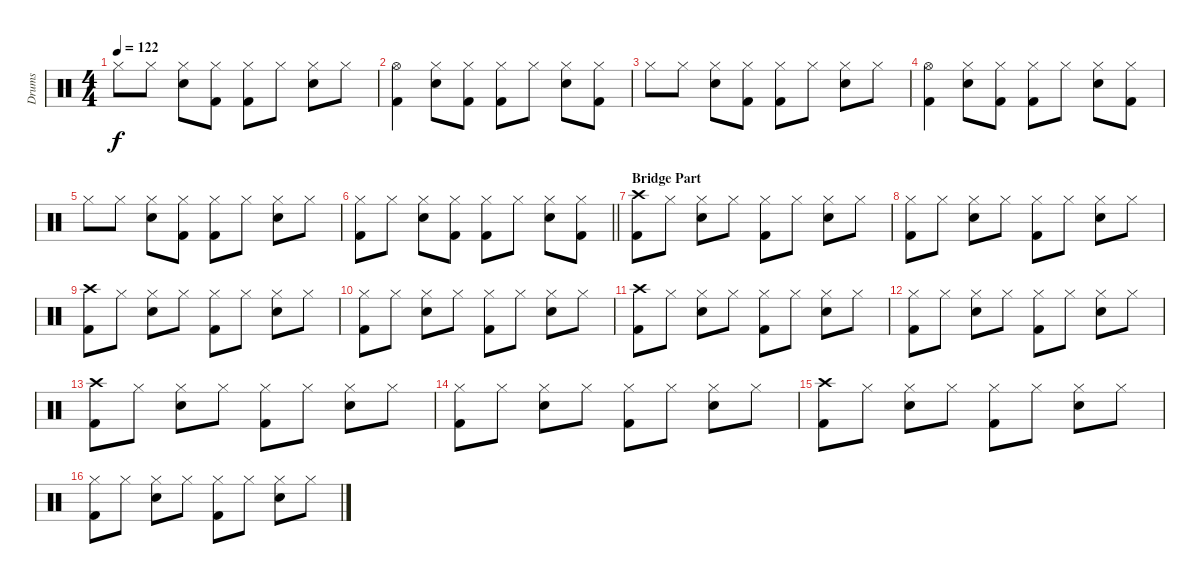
\track ("Drums" "Drums") {instrument percussion}
\staff {score}
\articulation defaults
\ts (4 4)
\tempo 122
\clef neutral
\ks c "Hi-Hat (closed)".8{dy f} "Hi-Hat (closed)".8
("Hi-Hat (closed)" "Snare (hit) 2").8 ("Hi-Hat (closed)" "Kick (hit) 2").8 ("Hi-Hat (closed)" "Kick (hit) 2").8 "Hi-Hat (closed)".8 ("Hi-Hat (closed)" "Snare (hit) 2").8 "Hi-Hat (closed)".8 |
("Hi-Hat (open)" "Kick (hit) 2").4 ("Hi-Hat (closed)" "Snare (hit) 2").8 ("Hi-Hat (closed)" "Kick (hit) 2").8 ("Hi-Hat (closed)" "Kick (hit) 2").8 "Hi-Hat (closed)".8 ("Hi-Hat (closed)" "Snare (hit) 2").8 ("Hi-Hat (closed)" "Kick (hit) 2").8 |
"Hi-Hat (closed)".8 "Hi-Hat (closed)".8 ("Hi-Hat (closed)" "Snare (hit) 2").8 ("Hi-Hat (closed)" "Kick (hit) 2").8 ("Hi-Hat (closed)" "Kick (hit) 2").8 "Hi-Hat (closed)".8 ("Hi-Hat (closed)" "Snare (hit) 2").8 "Hi-Hat (closed)".8 |
("Hi-Hat (open)" "Kick (hit) 2").4 ("Hi-Hat (closed)" "Snare (hit) 2").8 ("Hi-Hat (closed)" "Kick (hit) 2").8 ("Hi-Hat (closed)" "Kick (hit) 2").8 "Hi-Hat (closed)".8 ("Hi-Hat (closed)" "Snare (hit) 2").8 ("Hi-Hat (closed)" "Kick (hit) 2").8 |
"Hi-Hat (closed)".8 "Hi-Hat (closed)".8 ("Hi-Hat (closed)" "Snare (hit) 2").8 ("Hi-Hat (closed)" "Kick (hit) 2").8 ("Hi-Hat (closed)" "Kick (hit) 2").8 "Hi-Hat (closed)".8 ("Hi-Hat (closed)" "Snare (hit) 2").8 "Hi-Hat (closed)".8 |
\barLineRight lightlight
("Hi-Hat (closed)" "Kick (hit) 2").8 "Hi-Hat (closed)".8 ("Hi-Hat (closed)" "Snare (hit) 2").8 ("Hi-Hat (closed)" "Kick (hit) 2").8 ("Hi-Hat (closed)" "Kick (hit) 2").8 "Hi-Hat (closed)".8 ("Hi-Hat (closed)" "Snare (hit) 2").8 ("Hi-Hat (closed)" "Kick (hit) 2").8 |
\section ("" "Bridge Part")
("Crash high (hit)" "Kick (hit) 2").8 "Hi-Hat (closed)".8 ("Hi-Hat (closed)" "Snare (hit) 2").8 "Hi-Hat (closed)".8 ("Hi-Hat (closed)" "Kick (hit) 2").8 "Hi-Hat (closed)".8 ("Hi-Hat (closed)" "Snare (hit) 2").8 "Hi-Hat (closed)".8 |
("Hi-Hat (closed)" "Kick (hit) 2").8 "Hi-Hat (closed)".8 ("Hi-Hat (closed)" "Snare (hit) 2").8 "Hi-Hat (closed)".8 ("Hi-Hat (closed)" "Kick (hit) 2").8 "Hi-Hat (closed)".8 ("Hi-Hat (closed)" "Snare (hit) 2").8 "Hi-Hat (closed)".8 |
("Crash high (hit)" "Kick (hit) 2").8 "Hi-Hat (closed)".8 ("Hi-Hat (closed)" "Snare (hit) 2").8 "Hi-Hat (closed)".8 ("Hi-Hat (closed)" "Kick (hit) 2").8 "Hi-Hat (closed)".8 ("Hi-Hat (closed)" "Snare (hit) 2").8 "Hi-Hat (closed)".8 |
("Hi-Hat (closed)" "Kick (hit) 2").8 "Hi-Hat (closed)".8 ("Hi-Hat (closed)" "Snare (hit) 2").8 "Hi-Hat (closed)".8 ("Hi-Hat (closed)" "Kick (hit) 2").8 "Hi-Hat (closed)".8 ("Hi-Hat (closed)" "Snare (hit) 2").8 "Hi-Hat (closed)".8 |
("Crash high (hit)" "Kick (hit) 2").8 "Hi-Hat (closed)".8 ("Hi-Hat (closed)" "Snare (hit) 2").8 "Hi-Hat (closed)".8 ("Hi-Hat (closed)" "Kick (hit) 2").8 "Hi-Hat (closed)".8 ("Hi-Hat (closed)" "Snare (hit) 2").8 "Hi-Hat (closed)".8 |
("Hi-Hat (closed)" "Kick (hit) 2").8 "Hi-Hat (closed)".8 ("Hi-Hat (closed)" "Snare (hit) 2").8 "Hi-Hat (closed)".8 ("Hi-Hat (closed)" "Kick (hit) 2").8 "Hi-Hat (closed)".8 ("Hi-Hat (closed)" "Snare (hit) 2").8 "Hi-Hat (closed)".8 |
("Crash high (hit)" "Kick (hit) 2").8 "Hi-Hat (closed)".8 ("Hi-Hat (closed)" "Snare (hit) 2").8 "Hi-Hat (closed)".8 ("Hi-Hat (closed)" "Kick (hit) 2").8 "Hi-Hat (closed)".8 ("Hi-Hat (closed)" "Snare (hit) 2").8 "Hi-Hat (closed)".8 |
("Hi-Hat (closed)" "Kick (hit) 2").8 "Hi-Hat (closed)".8 ("Hi-Hat (closed)" "Snare (hit) 2").8 "Hi-Hat (closed)".8 ("Hi-Hat (closed)" "Kick (hit) 2").8 "Hi-Hat (closed)".8 ("Hi-Hat (closed)" "Snare (hit) 2").8 "Hi-Hat (closed)".8 |
("Crash high (hit)" "Kick (hit) 2").8 "Hi-Hat (closed)".8 ("Hi-Hat (closed)" "Snare (hit) 2").8 "Hi-Hat (closed)".8 ("Hi-Hat (closed)" "Kick (hit) 2").8 "Hi-Hat (closed)".8 ("Hi-Hat (closed)" "Snare (hit) 2").8 "Hi-Hat (closed)".8 |
("Hi-Hat (closed)" "Kick (hit) 2").8 "Hi-Hat (closed)".8 ("Hi-Hat (closed)" "Snare (hit) 2").8 "Hi-Hat (closed)".8 ("Hi-Hat (closed)" "Kick (hit) 2").8 "Hi-Hat (closed)".8 ("Hi-Hat (closed)" "Snare (hit) 2").8 "Hi-Hat (closed)".8
